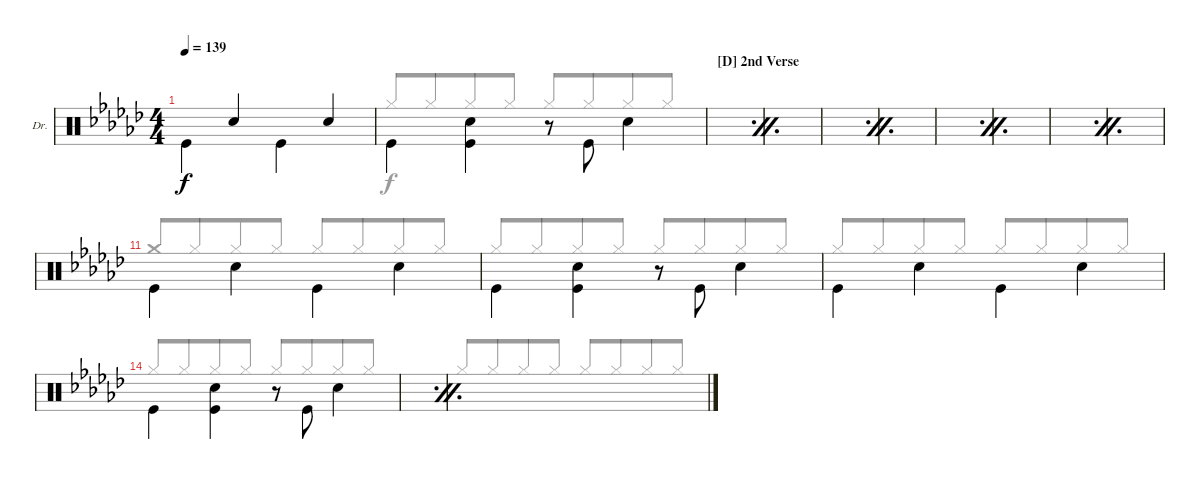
\bracketExtendMode groupsimilarinstruments
\firstSystemTrackNameOrientation horizontal
\otherSystemsTrackNameOrientation horizontal
\defaultBarNumberDisplay FirstOfSystem
\track ("Drums" "Dr.") {instrument percussion}
\staff {score}
\articulation defaults
\voice
\ts (4 4)
\tempo 139
\clef neutral
\ks gb "Kick (hit)".4{dy f beam invert} "Snare (hit) 2".4{beam invert} "Kick (hit)".4{beam invert} "Snare (hit) 2".4{beam invert}
|
"Kick (hit)".4{beam invert} ("Snare (hit) 2" "Kick (hit)").4{beam invert} r.8 "Kick (hit)".8{beam invert} "Snare (hit) 2".4{beam invert} |
\section ("D" "2nd Verse")
\simile firstofdouble
|
\simile secondofdouble
|
\simile firstofdouble
|
\simile secondofdouble
|
\simile firstofdouble
|
\simile secondofdouble
|
\simile firstofdouble
|
\simile secondofdouble
|
\simile none "Kick (hit)".4{beam invert} "Snare (hit) 2".4{beam invert} "Kick (hit)".4{beam invert} "Snare (hit) 2".4{beam invert}
|
"Kick (hit)".4{beam invert} ("Snare (hit) 2" "Kick (hit)").4{beam invert} r.8 "Kick (hit)".8{beam invert} "Snare (hit) 2".4{beam invert} |
"Kick (hit)".4{beam invert} "Snare (hit) 2".4{beam invert} "Kick (hit)".4{beam invert} "Snare (hit) 2".4{beam invert} |
"Kick (hit)".4{beam invert} ("Snare (hit) 2" "Kick (hit)").4{beam invert} r.8 "Kick (hit)".8{beam invert} "Snare (hit) 2".4{beam invert} |
\simile firstofdouble
|
\simile secondofdouble
\voice
\clef neutral
\ottava regular
\simile none
\ks gb "Hi-Hat (closed)".8{dy f beam invert} "Hi-Hat (closed)".8{beam merge} "Hi-Hat (closed)".8 "Hi-Hat (closed)".8 "Hi-Hat (closed)".8{beam invert} "Hi-Hat (closed)".8{beam merge} "Hi-Hat (closed)".8 "Hi-Hat (closed)".8
|
"Hi-Hat (closed)".8{beam invert beam merge} "Hi-Hat (closed)".8{beam merge} "Hi-Hat (closed)".8 "Hi-Hat (closed)".8 "Hi-Hat (closed)".8{beam invert} "Hi-Hat (closed)".8{beam merge} "Hi-Hat (closed)".8{beam merge} "Hi-Hat (closed)".8 |
\simile firstofdouble
|
\simile secondofdouble
|
\simile firstofdouble
|
\simile secondofdouble
|
\simile firstofdouble
|
\simile secondofdouble
|
\simile firstofdouble
|
\simile secondofdouble
|
\simile none "Crash medium (hit)".8{beam invert} "Hi-Hat (closed)".8{beam merge} "Hi-Hat (closed)".8 "Hi-Hat (closed)".8 "Hi-Hat (closed)".8{beam invert} "Hi-Hat (closed)".8{beam merge} "Hi-Hat (closed)".8 "Hi-Hat (closed)".8
|
"Hi-Hat (closed)".8{beam invert} "Hi-Hat (closed)".8{beam merge} "Hi-Hat (closed)".8 "Hi-Hat (closed)".8 "Hi-Hat (closed)".8{beam invert beam merge} "Hi-Hat (closed)".8{beam merge} "Hi-Hat (closed)".8{beam merge} "Hi-Hat (closed)".8 |
"Hi-Hat (closed)".8{beam invert} "Hi-Hat (closed)".8{beam merge} "Hi-Hat (closed)".8 "Hi-Hat (closed)".8 "Hi-Hat (closed)".8{beam invert} "Hi-Hat (closed)".8{beam merge} "Hi-Hat (closed)".8 "Hi-Hat (closed)".8 |
"Hi-Hat (closed)".8{beam invert beam merge} "Hi-Hat (closed)".8{beam merge} "Hi-Hat (closed)".8 "Hi-Hat (closed)".8 "Hi-Hat (closed)".8{beam invert} "Hi-Hat (closed)".8{beam merge} "Hi-Hat (closed)".8{beam merge} "Hi-Hat (closed)".8 |
\simile firstofdouble
|
\simile secondofdouble
